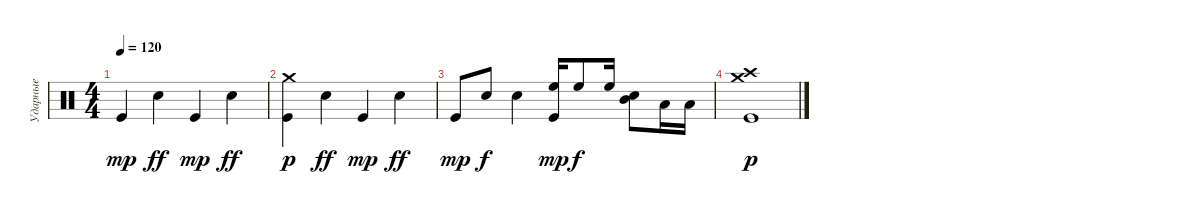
\track ("Ударные" "Ударные") {instrument percussion}
\staff {score}
\articulation defaults
\ts (4 4)
\tempo 120
\clef neutral
\ks c "Kick (hit)".4{dy mp} "Snare (hit) 2".4{dy ff} "Kick (hit)".4{dy mp} "Snare (hit) 2".4{dy ff}
|
("Kick (hit)" "Crash medium (hit)").4{dy p} "Snare (hit) 2".4{dy ff} "Kick (hit)".4{dy mp} "Snare (hit) 2".4{dy ff} |
"Kick (hit)".8{dy mp} "Snare (hit) 2".8{dy f} "Snare (hit) 2".4 ("High Floor Tom (hit)" "Kick (hit)").16{dy mp} "High Floor Tom (hit)".8{dy f} "High Floor Tom (hit)".16 ("Mid Tom (hit)" "Snare (hit) 2").8 "Low Tom (hit)".16 "Low Tom (hit)".16 |
("Kick (hit)" "Crash high (hit)" "Crash medium (hit)").1{dy p}
